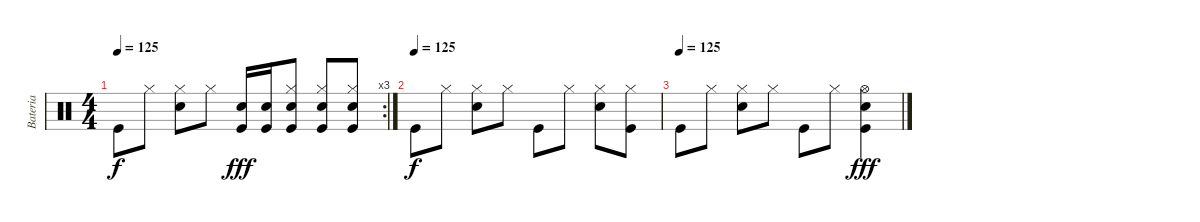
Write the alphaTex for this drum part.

\track ("Bateria" "Bateria") {instrument percussion}
\staff {score}
\articulation defaults
\rc 3
\ts (4 4)
\tempo 125
\clef neutral
\ks c "Kick (hit)".8{dy f} "Hi-Hat (closed)".8
("Snare (hit) 2" "Hi-Hat (closed)").8 "Hi-Hat (closed)".8 ("Snare (hit) 2" "Kick (hit)").16{dy fff} ("Snare (hit) 2" "Kick (hit)").16 ("Snare (hit) 2" "Hi-Hat (closed)" "Kick (hit)").8 ("Snare (hit) 2" "Hi-Hat (closed)" "Kick (hit)").8 ("Snare (hit) 2" "Hi-Hat (closed)" "Kick (hit)").8 |
\tempo (125)
"Kick (hit)".8{dy f} "Hi-Hat (closed)".8 ("Snare (hit) 2" "Hi-Hat (closed)").8 "Hi-Hat (closed)".8 "Kick (hit)".8 "Hi-Hat (closed)".8 ("Snare (hit) 2" "Hi-Hat (closed)").8 ("Hi-Hat (closed)" "Kick (hit)").8 |
\tempo (125)
"Kick (hit)".8 "Hi-Hat (closed)".8 ("Snare (hit) 2" "Hi-Hat (closed)").8 "Hi-Hat (closed)".8 "Kick (hit)".8 "Hi-Hat (closed)".8 ("Snare (hit) 2" "Hi-Hat (open)" "Kick (hit)").4{dy fff}
